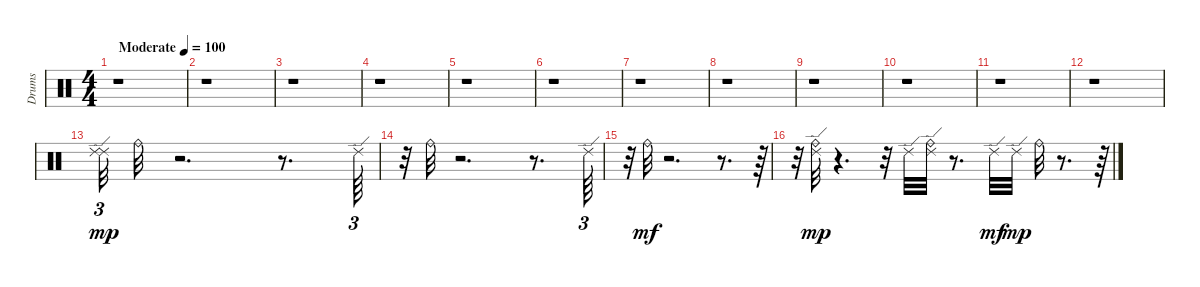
\track ("Drums" "Drums") {instrument percussion}
\staff {score}
\articulation defaults
\ts (4 4)
\tempo (100 "Moderate")
\clef neutral
\ks c
r.1{dy mp} |
r.1 |
r.1 |
r.1 |
r.1 |
r.1 |
r.1 |
r.1 |
r.1 |
r.1 |
r.1 |
r.1 |
("Ride (edge) 2" "Ride (edge) 2").32{tu (3 2)} "Ride (bell)".32 r.2{d} r.8{d} "Ride (edge) 2".64{tu (3 2)} |
r.32{tu (3 2)} "Ride (bell)".32 r.2{d} r.8{d} "Ride (edge) 2".64{tu (3 2)} |
r.32{tu (3 2)} "Ride (bell)".32{dy mf} r.2{d} r.8{d} r.64{tu (3 2)} |
r.32{tu (3 2)} ("Ride (edge) 2" "Ride (bell)").32{dy mp} r.4{d} r.32 "Ride (edge) 2".32 ("Ride (edge) 2" "Ride (bell)").32 r.8{d} "Ride (edge) 2".32{dy mf} "Ride (edge) 2".32{dy mp} "Ride (bell)".32 r.8{d} r.64{tu (3 2)}
